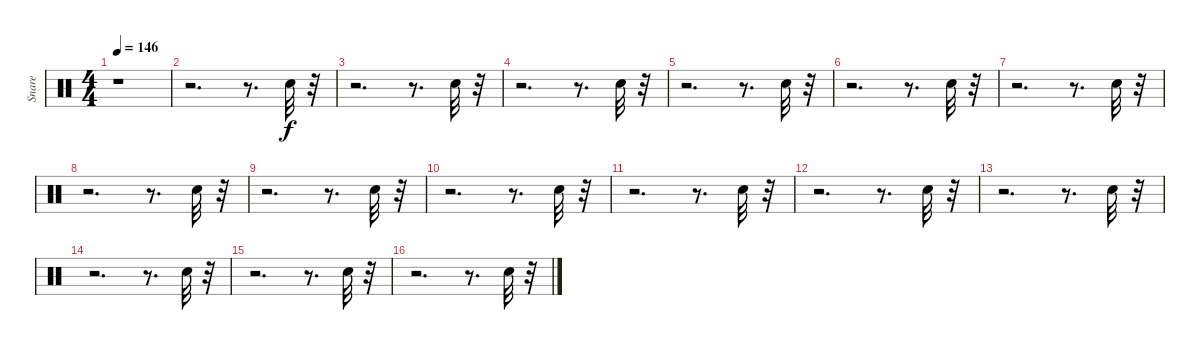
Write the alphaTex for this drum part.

\track ("Snare" "Snare") {instrument percussion}
\staff {score}
\articulation defaults
\ts (4 4)
\tempo 146
\clef neutral
\ks c
r.1{dy f} |
r.2{d} r.8{d} "Snare (hit) 2".32 r.32 |
r.2{d} r.8{d} "Snare (hit) 2".32 r.32 |
r.2{d} r.8{d} "Snare (hit) 2".32 r.32 |
r.2{d} r.8{d} "Snare (hit) 2".32 r.32 |
r.2{d} r.8{d} "Snare (hit) 2".32 r.32 |
r.2{d} r.8{d} "Snare (hit) 2".32 r.32 |
r.2{d} r.8{d} "Snare (hit) 2".32 r.32 |
r.2{d} r.8{d} "Snare (hit) 2".32 r.32 |
r.2{d} r.8{d} "Snare (hit) 2".32 r.32 |
r.2{d} r.8{d} "Snare (hit) 2".32 r.32 |
r.2{d} r.8{d} "Snare (hit) 2".32 r.32 |
r.2{d} r.8{d} "Snare (hit) 2".32 r.32 |
r.2{d} r.8{d} "Snare (hit) 2".32 r.32 |
r.2{d} r.8{d} "Snare (hit) 2".32 r.32 |
r.2{d} r.8{d} "Snare (hit) 2".32 r.32
